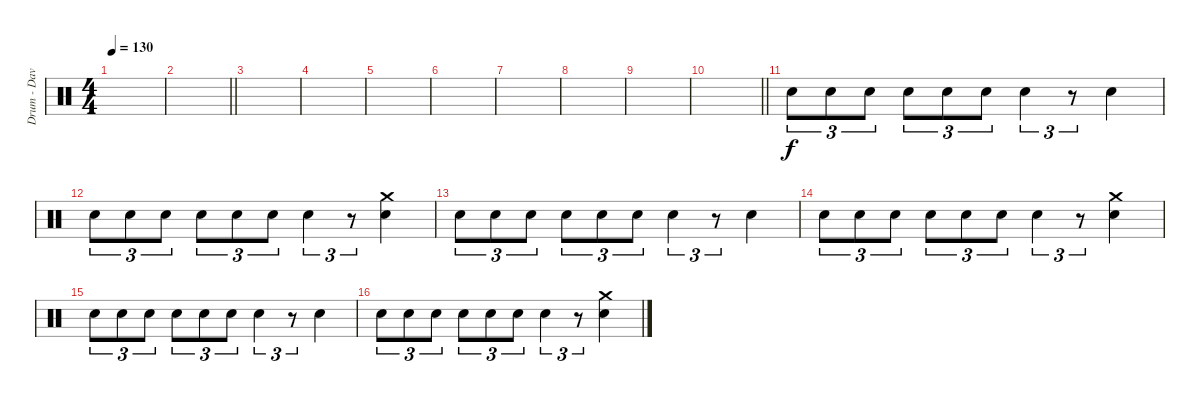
\track ("Drum - Dave Mackintosh" "Drum - Dav") {instrument percussion}
\staff {score}
\articulation defaults
\ts (4 4)
\tempo 130
\clef neutral
\ks c
|
\barLineRight lightlight
|
\section ("" "")
|
|
|
|
|
|
|
\barLineRight lightlight
|
\section ("" "")
"Electric Snare (hit)".8{tu (3 2)} "Electric Snare (hit)".8{tu (3 2)} "Electric Snare (hit)".8{tu (3 2)} "Electric Snare (hit)".8{tu (3 2)} "Electric Snare (hit)".8{tu (3 2)} "Electric Snare (hit)".8{tu (3 2)} "Electric Snare (hit)".4{tu (3 2)} r.8{tu (3 2)} "Electric Snare (hit)".4 |
"Electric Snare (hit)".8{tu (3 2)} "Electric Snare (hit)".8{tu (3 2)} "Electric Snare (hit)".8{tu (3 2)} "Electric Snare (hit)".8{tu (3 2)} "Electric Snare (hit)".8{tu (3 2)} "Electric Snare (hit)".8{tu (3 2)} "Electric Snare (hit)".4{tu (3 2)} r.8{tu (3 2)} ("Crash medium (hit)" "Electric Snare (hit)").4 |
"Electric Snare (hit)".8{tu (3 2)} "Electric Snare (hit)".8{tu (3 2)} "Electric Snare (hit)".8{tu (3 2)} "Electric Snare (hit)".8{tu (3 2)} "Electric Snare (hit)".8{tu (3 2)} "Electric Snare (hit)".8{tu (3 2)} "Electric Snare (hit)".4{tu (3 2)} r.8{tu (3 2)} "Electric Snare (hit)".4 |
"Electric Snare (hit)".8{tu (3 2)} "Electric Snare (hit)".8{tu (3 2)} "Electric Snare (hit)".8{tu (3 2)} "Electric Snare (hit)".8{tu (3 2)} "Electric Snare (hit)".8{tu (3 2)} "Electric Snare (hit)".8{tu (3 2)} "Electric Snare (hit)".4{tu (3 2)} r.8{tu (3 2)} ("Crash medium (hit)" "Electric Snare (hit)").4 |
"Electric Snare (hit)".8{tu (3 2)} "Electric Snare (hit)".8{tu (3 2)} "Electric Snare (hit)".8{tu (3 2)} "Electric Snare (hit)".8{tu (3 2)} "Electric Snare (hit)".8{tu (3 2)} "Electric Snare (hit)".8{tu (3 2)} "Electric Snare (hit)".4{tu (3 2)} r.8{tu (3 2)} "Electric Snare (hit)".4 |
"Electric Snare (hit)".8{tu (3 2)} "Electric Snare (hit)".8{tu (3 2)} "Electric Snare (hit)".8{tu (3 2)} "Electric Snare (hit)".8{tu (3 2)} "Electric Snare (hit)".8{tu (3 2)} "Electric Snare (hit)".8{tu (3 2)} "Electric Snare (hit)".4{tu (3 2)} r.8{tu (3 2)} ("Crash medium (hit)" "Electric Snare (hit)").4
